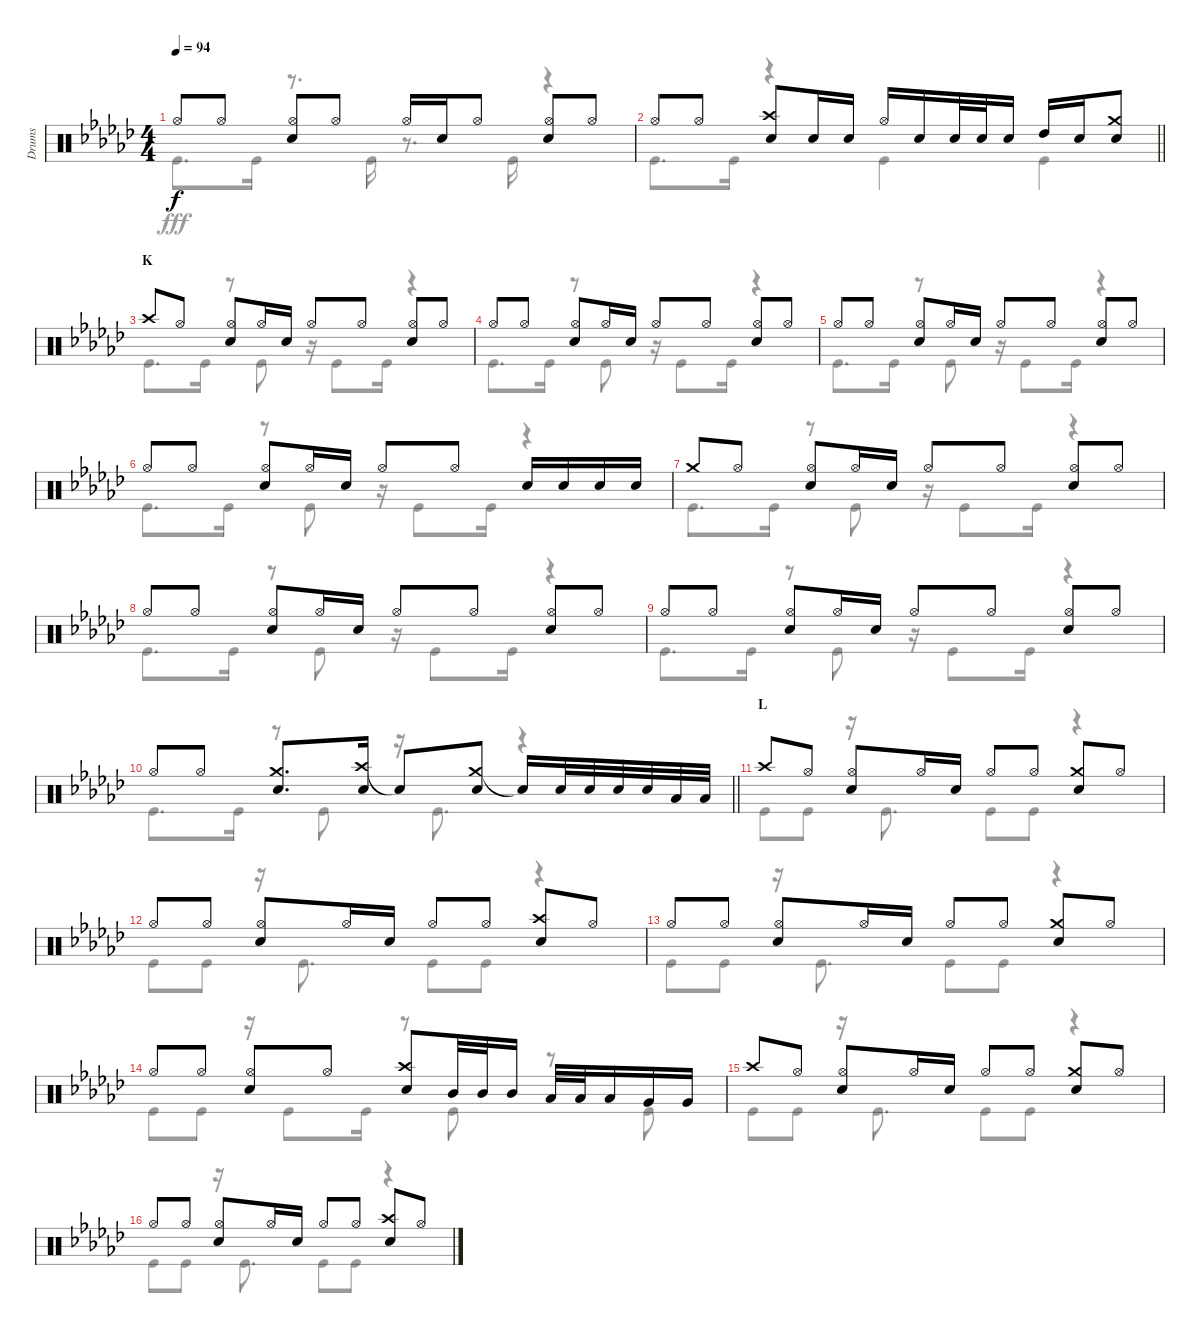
\track ("Drums" "Drums") {instrument percussion}
\staff {score}
\articulation defaults
\voice
\ts (4 4)
\tempo 94
\clef neutral
\ks gb "Hi-Hat (open)".8{dy f} "Hi-Hat (open)".8
("Hi-Hat (open)" "Snare (hit) 2").8 "Hi-Hat (open)".8 "Hi-Hat (open)".16 "Snare (hit) 2".16 "Hi-Hat (open)".8 ("Hi-Hat (open)" "Snare (hit) 2").8 "Hi-Hat (open)".8 |
\barLineRight lightlight "Hi-Hat (open)".8 "Hi-Hat (open)".8
("Crash high (hit)" "Snare (hit) 2").8 "Snare (hit) 2".16 "Snare (hit) 2".16 "Hi-Hat (open)".16 "Snare (hit) 2".16 "Snare (hit) 2".32 "Snare (hit) 2".32 "Snare (hit) 2".16 "High Tom (hit)".16 "Snare (hit) 2".16 ("Crash medium (hit)" "Snare (hit) 2").8 |
\section ("" "K")
"Crash high (hit)".8 "Hi-Hat (open)".8 ("Hi-Hat (open)" "Snare (hit) 2").8 "Hi-Hat (open)".16 "Snare (hit) 2".16 "Hi-Hat (open)".8 "Hi-Hat (open)".8 ("Hi-Hat (open)" "Snare (hit) 2").8 "Hi-Hat (open)".8 |
"Hi-Hat (open)".8 "Hi-Hat (open)".8 ("Hi-Hat (open)" "Snare (hit) 2").8 "Hi-Hat (open)".16 "Snare (hit) 2".16 "Hi-Hat (open)".8 "Hi-Hat (open)".8 ("Hi-Hat (open)" "Snare (hit) 2").8 "Hi-Hat (open)".8 |
"Hi-Hat (open)".8 "Hi-Hat (open)".8 ("Hi-Hat (open)" "Snare (hit) 2").8 "Hi-Hat (open)".16 "Snare (hit) 2".16 "Hi-Hat (open)".8 "Hi-Hat (open)".8 ("Hi-Hat (open)" "Snare (hit) 2").8 "Hi-Hat (open)".8 |
"Hi-Hat (open)".8 "Hi-Hat (open)".8 ("Hi-Hat (open)" "Snare (hit) 2").8 "Hi-Hat (open)".16 "Snare (hit) 2".16 "Hi-Hat (open)".8 "Hi-Hat (open)".8 "Snare (hit) 2".16 "Snare (hit) 2".16 "Snare (hit) 2".16 "Snare (hit) 2".16 |
"Crash medium (hit)".8 "Hi-Hat (open)".8 ("Hi-Hat (open)" "Snare (hit) 2").8 "Hi-Hat (open)".16 "Snare (hit) 2".16 "Hi-Hat (open)".8 "Hi-Hat (open)".8 ("Hi-Hat (open)" "Snare (hit) 2").8 "Hi-Hat (open)".8 |
"Hi-Hat (open)".8 "Hi-Hat (open)".8 ("Hi-Hat (open)" "Snare (hit) 2").8 "Hi-Hat (open)".16 "Snare (hit) 2".16 "Hi-Hat (open)".8 "Hi-Hat (open)".8 ("Hi-Hat (open)" "Snare (hit) 2").8 "Hi-Hat (open)".8 |
"Hi-Hat (open)".8 "Hi-Hat (open)".8 ("Hi-Hat (open)" "Snare (hit) 2").8 "Hi-Hat (open)".16 "Snare (hit) 2".16 "Hi-Hat (open)".8 "Hi-Hat (open)".8 ("Hi-Hat (open)" "Snare (hit) 2").8 "Hi-Hat (open)".8 |
\barLineRight lightlight "Hi-Hat (open)".8 "Hi-Hat (open)".8
("Crash medium (hit)" "Snare (hit) 2").8{d} ("Crash high (hit)" "Snare (hit) 2").16 "Snare (hit)"{t}.8 ("Crash medium (hit)" "Snare (hit) 2").8 "Snare (hit)"{t}.16 "Snare (hit) 2".32 "Snare (hit) 2".32 "Snare (hit) 2".32 "Snare (hit) 2".32 "Low Tom (hit)".32 "Low Tom (hit)".32 |
\section ("" "L")
"Crash high (hit)".8 "Hi-Hat (open)".8 ("Hi-Hat (open)" "Snare (hit) 2").8 "Hi-Hat (open)".16 "Snare (hit) 2".16 "Hi-Hat (open)".8 "Hi-Hat (open)".8 ("Crash medium (hit)" "Snare (hit) 2").8 "Hi-Hat (open)".8 |
"Hi-Hat (open)".8 "Hi-Hat (open)".8 ("Hi-Hat (open)" "Snare (hit) 2").8 "Hi-Hat (open)".16 "Snare (hit) 2".16 "Hi-Hat (open)".8 "Hi-Hat (open)".8 ("Crash high (hit)" "Snare (hit) 2").8 "Hi-Hat (open)".8 |
"Hi-Hat (open)".8 "Hi-Hat (open)".8 ("Hi-Hat (open)" "Snare (hit) 2").8 "Hi-Hat (open)".16 "Snare (hit) 2".16 "Hi-Hat (open)".8 "Hi-Hat (open)".8 ("Crash medium (hit)" "Snare (hit) 2").8 "Hi-Hat (open)".8 |
"Hi-Hat (open)".8 "Hi-Hat (open)".8 ("Hi-Hat (open)" "Snare (hit) 2").8 "Hi-Hat (open)".8 ("Crash high (hit)" "Snare (hit) 2").8 "Mid Tom (hit)".32 "Mid Tom (hit)".32 "Mid Tom (hit)".16 "Low Tom (hit)".32 "Low Tom (hit)".32 "Low Tom (hit)".16 "Very Low Tom (hit)".16 "Very Low Tom (hit)".16 |
"Crash high (hit)".8 "Hi-Hat (open)".8 ("Hi-Hat (open)" "Snare (hit) 2").8 "Hi-Hat (open)".16 "Snare (hit) 2".16 "Hi-Hat (open)".8 "Hi-Hat (open)".8 ("Crash medium (hit)" "Snare (hit) 2").8 "Hi-Hat (open)".8 |
"Hi-Hat (open)".8 "Hi-Hat (open)".8 ("Hi-Hat (open)" "Snare (hit) 2").8 "Hi-Hat (open)".16 "Snare (hit) 2".16 "Hi-Hat (open)".8 "Hi-Hat (open)".8 ("Crash high (hit)" "Snare (hit) 2").8 "Hi-Hat (open)".8
\voice
\clef neutral
\ottava regular
\simile none
\ks gb "Kick (hit)".8{d dy fff} "Kick (hit)".16
r.8{d} "Kick (hit)".16 r.8{d} "Kick (hit)".16 r.4 |
\barLineRight lightlight "Kick (hit)".8{d} "Kick (hit)".16
r.4 "Kick (hit)".4 "Kick (hit)".4 |
"Kick (hit)".8{d} "Kick (hit)".16 r.8 "Kick (hit)".8 r.16 "Kick (hit)".8 "Kick (hit)".16 r.4 |
"Kick (hit)".8{d} "Kick (hit)".16 r.8 "Kick (hit)".8 r.16 "Kick (hit)".8 "Kick (hit)".16 r.4 |
"Kick (hit)".8{d} "Kick (hit)".16 r.8 "Kick (hit)".8 r.16 "Kick (hit)".8 "Kick (hit)".16 r.4 |
"Kick (hit)".8{d} "Kick (hit)".16 r.8 "Kick (hit)".8 r.16 "Kick (hit)".8 "Kick (hit)".16 r.4 |
"Kick (hit)".8{d} "Kick (hit)".16 r.8 "Kick (hit)".8 r.16 "Kick (hit)".8 "Kick (hit)".16 r.4 |
"Kick (hit)".8{d} "Kick (hit)".16 r.8 "Kick (hit)".8 r.16 "Kick (hit)".8 "Kick (hit)".16 r.4 |
"Kick (hit)".8{d} "Kick (hit)".16 r.8 "Kick (hit)".8 r.16 "Kick (hit)".8 "Kick (hit)".16 r.4 |
\barLineRight lightlight "Kick (hit)".8{d} "Kick (hit)".16
r.8 "Kick (hit)".8 r.16 "Kick (hit)".8{d} r.4 |
"Kick (hit)".8 "Kick (hit)".8 r.16 "Kick (hit)".8{d} "Kick (hit)".8 "Kick (hit)".8 r.4 |
"Kick (hit)".8 "Kick (hit)".8 r.16 "Kick (hit)".8{d} "Kick (hit)".8 "Kick (hit)".8 r.4 |
"Kick (hit)".8 "Kick (hit)".8 r.16 "Kick (hit)".8{d} "Kick (hit)".8 "Kick (hit)".8 r.4 |
"Kick (hit)".8 "Kick (hit)".8 r.16 "Kick (hit)".8 "Kick (hit)".16 r.8 "Kick (hit)".8 r.8 "Kick (hit)".8 |
"Kick (hit)".8 "Kick (hit)".8 r.16 "Kick (hit)".8{d} "Kick (hit)".8 "Kick (hit)".8 r.4 |
"Kick (hit)".8 "Kick (hit)".8 r.16 "Kick (hit)".8{d} "Kick (hit)".8 "Kick (hit)".8 r.4
